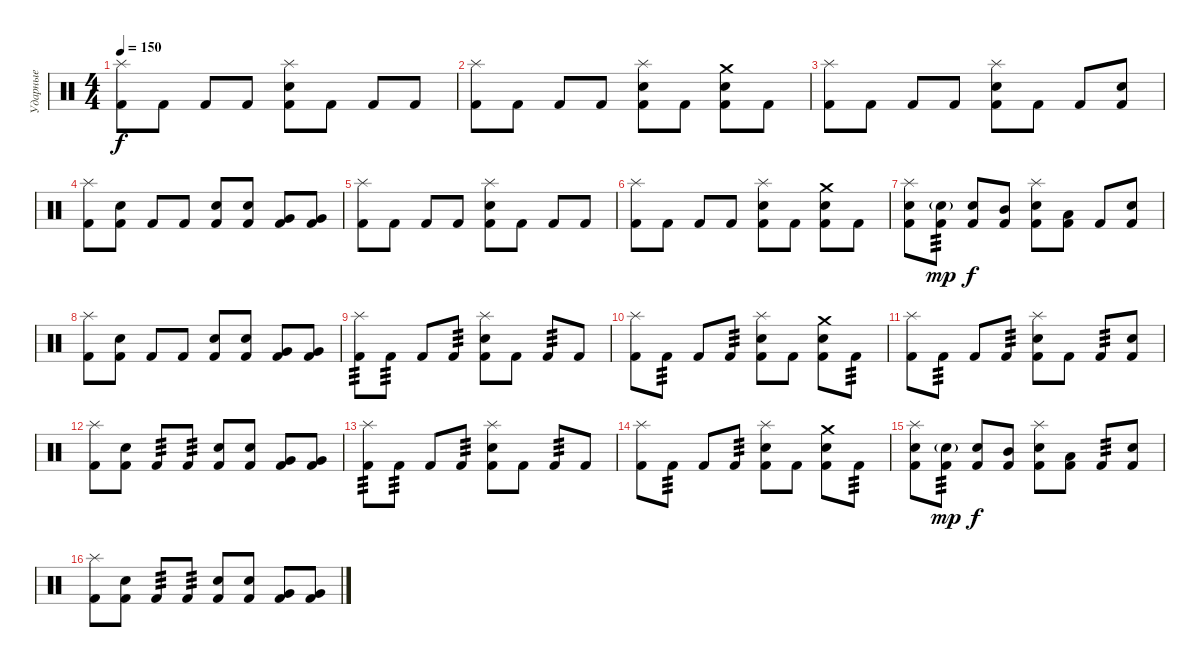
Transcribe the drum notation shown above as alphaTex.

\track ("Ударные" "Ударные") {instrument percussion}
\staff {score}
\articulation defaults
\ts (4 4)
\tempo 150
\clef neutral
\ks c
("Splash (hit)" "Kick (hit) 2").8{dy f} "Kick (hit) 2".8 "Kick (hit) 2".8 "Kick (hit) 2".8 ("Splash (hit)" "Electric Snare (hit)" "Kick (hit) 2").8 "Kick (hit) 2".8 "Kick (hit) 2".8 "Kick (hit) 2".8 |
("Splash (hit)" "Kick (hit) 2").8 "Kick (hit) 2".8 "Kick (hit) 2".8 "Kick (hit) 2".8 ("Splash (hit)" "Electric Snare (hit)" "Kick (hit) 2").8 "Kick (hit) 2".8 ("Crash medium (hit)" "Electric Snare (hit)" "Kick (hit) 2").8 "Kick (hit) 2".8 |
("Splash (hit)" "Kick (hit) 2").8 "Kick (hit) 2".8 "Kick (hit) 2".8 "Kick (hit) 2".8 ("Splash (hit)" "Electric Snare (hit)" "Kick (hit) 2").8 "Kick (hit) 2".8 "Kick (hit) 2".8 ("Electric Snare (hit)" "Kick (hit) 2").8 |
("Splash (hit)" "Kick (hit) 2").8 ("Electric Snare (hit)" "Kick (hit) 2").8 "Kick (hit) 2".8 "Kick (hit) 2".8 ("Electric Snare (hit)" "Kick (hit) 2").8 ("Electric Snare (hit)" "Kick (hit) 2").8 ("Very Low Tom (hit)" "Kick (hit) 2").8 ("Very Low Tom (hit)" "Kick (hit) 2").8 |
("Splash (hit)" "Kick (hit) 2").8 "Kick (hit) 2".8 "Kick (hit) 2".8 "Kick (hit) 2".8 ("Splash (hit)" "Electric Snare (hit)" "Kick (hit) 2").8 "Kick (hit) 2".8 "Kick (hit) 2".8 "Kick (hit) 2".8 |
("Splash (hit)" "Kick (hit) 2").8 "Kick (hit) 2".8 "Kick (hit) 2".8 "Kick (hit) 2".8 ("Splash (hit)" "Electric Snare (hit)" "Kick (hit) 2").8 "Kick (hit) 2".8 ("Crash medium (hit)" "Electric Snare (hit)" "Kick (hit) 2").8 "Kick (hit) 2".8 |
("Splash (hit)" "Electric Snare (hit)" "Kick (hit) 2").8 ("Electric Snare (hit)"{g} "Kick (hit) 2").8{tp 3 dy mp} ("Electric Snare (hit)" "Kick (hit) 2").8{dy f} ("Mid Tom (hit)" "Kick (hit) 2").8 ("Splash (hit)" "Electric Snare (hit)" "Kick (hit) 2").8 ("Low Tom (hit)" "Kick (hit) 2").8 "Kick (hit) 2".8 ("Electric Snare (hit)" "Kick (hit) 2").8 |
("Splash (hit)" "Kick (hit) 2").8 ("Electric Snare (hit)" "Kick (hit) 2").8 "Kick (hit) 2".8 "Kick (hit) 2".8 ("Electric Snare (hit)" "Kick (hit) 2").8 ("Electric Snare (hit)" "Kick (hit) 2").8 ("Very Low Tom (hit)" "Kick (hit) 2").8 ("Very Low Tom (hit)" "Kick (hit) 2").8 |
("Splash (hit)" "Kick (hit) 2").8{tp 3} "Kick (hit) 2".8{tp 3} "Kick (hit) 2".8 "Kick (hit) 2".8{tp 3} ("Splash (hit)" "Electric Snare (hit)" "Kick (hit) 2").8 "Kick (hit) 2".8 "Kick (hit) 2".8{tp 3} "Kick (hit) 2".8 |
("Splash (hit)" "Kick (hit) 2").8 "Kick (hit) 2".8{tp 3} "Kick (hit) 2".8 "Kick (hit) 2".8{tp 3} ("Splash (hit)" "Electric Snare (hit)" "Kick (hit) 2").8 "Kick (hit) 2".8 ("Crash medium (hit)" "Electric Snare (hit)" "Kick (hit) 2").8 "Kick (hit) 2".8{tp 3} |
("Splash (hit)" "Kick (hit) 2").8 "Kick (hit) 2".8{tp 3} "Kick (hit) 2".8 "Kick (hit) 2".8{tp 3} ("Splash (hit)" "Electric Snare (hit)" "Kick (hit) 2").8 "Kick (hit) 2".8 "Kick (hit) 2".8{tp 3} ("Electric Snare (hit)" "Kick (hit) 2").8 |
("Splash (hit)" "Kick (hit) 2").8 ("Electric Snare (hit)" "Kick (hit) 2").8 "Kick (hit) 2".8{tp 3} "Kick (hit) 2".8{tp 3} ("Electric Snare (hit)" "Kick (hit) 2").8 ("Electric Snare (hit)" "Kick (hit) 2").8 ("Very Low Tom (hit)" "Kick (hit) 2").8 ("Very Low Tom (hit)" "Kick (hit) 2").8 |
("Splash (hit)" "Kick (hit) 2").8{tp 3} "Kick (hit) 2".8{tp 3} "Kick (hit) 2".8 "Kick (hit) 2".8{tp 3} ("Splash (hit)" "Electric Snare (hit)" "Kick (hit) 2").8 "Kick (hit) 2".8 "Kick (hit) 2".8{tp 3} "Kick (hit) 2".8 |
("Splash (hit)" "Kick (hit) 2").8 "Kick (hit) 2".8{tp 3} "Kick (hit) 2".8 "Kick (hit) 2".8{tp 3} ("Splash (hit)" "Electric Snare (hit)" "Kick (hit) 2").8 "Kick (hit) 2".8 ("Crash medium (hit)" "Electric Snare (hit)" "Kick (hit) 2").8 "Kick (hit) 2".8{tp 3} |
("Splash (hit)" "Electric Snare (hit)" "Kick (hit) 2").8 ("Electric Snare (hit)"{g} "Kick (hit) 2").8{tp 3 dy mp} ("Electric Snare (hit)" "Kick (hit) 2").8{dy f} ("Mid Tom (hit)" "Kick (hit) 2").8 ("Splash (hit)" "Electric Snare (hit)" "Kick (hit) 2").8 ("Low Tom (hit)" "Kick (hit) 2").8 "Kick (hit) 2".8{tp 3} ("Electric Snare (hit)" "Kick (hit) 2").8 |
("Splash (hit)" "Kick (hit) 2").8 ("Electric Snare (hit)" "Kick (hit) 2").8 "Kick (hit) 2".8{tp 3} "Kick (hit) 2".8{tp 3} ("Electric Snare (hit)" "Kick (hit) 2").8 ("Electric Snare (hit)" "Kick (hit) 2").8 ("Very Low Tom (hit)" "Kick (hit) 2").8 ("Very Low Tom (hit)" "Kick (hit) 2").8
